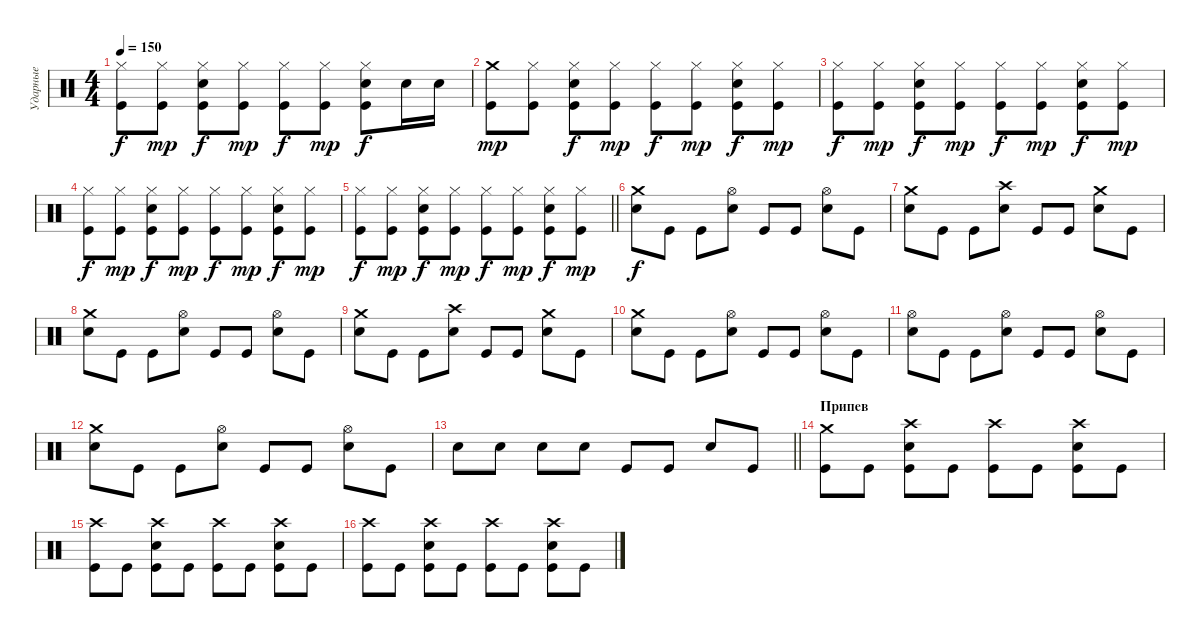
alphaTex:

\track ("Ударные" "Ударные") {instrument percussion}
\staff {score}
\articulation defaults
\ts (4 4)
\tempo 150
\clef neutral
\ks c
("Hi-Hat (closed)" "Kick (hit)").8{dy f} ("Hi-Hat (closed)" "Kick (hit)").8{dy mp} ("Hi-Hat (closed)" "Electric Snare (hit)" "Kick (hit)").8{dy f} ("Hi-Hat (closed)" "Kick (hit)").8{dy mp} ("Hi-Hat (closed)" "Kick (hit)").8{dy f} ("Hi-Hat (closed)" "Kick (hit)").8{dy mp} ("Hi-Hat (closed)" "Electric Snare (hit)" "Kick (hit)").8{dy f} "Electric Snare (hit)".16 "Electric Snare (hit)".16 |
("Crash medium (hit)" "Kick (hit)").8{dy mp} ("Hi-Hat (closed)" "Kick (hit)").8 ("Hi-Hat (closed)" "Electric Snare (hit)" "Kick (hit)").8{dy f} ("Hi-Hat (closed)" "Kick (hit)").8{dy mp} ("Hi-Hat (closed)" "Kick (hit)").8{dy f} ("Hi-Hat (closed)" "Kick (hit)").8{dy mp} ("Hi-Hat (closed)" "Electric Snare (hit)" "Kick (hit)").8{dy f} ("Hi-Hat (closed)" "Kick (hit)").8{dy mp} |
("Hi-Hat (closed)" "Kick (hit)").8{dy f} ("Hi-Hat (closed)" "Kick (hit)").8{dy mp} ("Hi-Hat (closed)" "Electric Snare (hit)" "Kick (hit)").8{dy f} ("Hi-Hat (closed)" "Kick (hit)").8{dy mp} ("Hi-Hat (closed)" "Kick (hit)").8{dy f} ("Hi-Hat (closed)" "Kick (hit)").8{dy mp} ("Hi-Hat (closed)" "Electric Snare (hit)" "Kick (hit)").8{dy f} ("Hi-Hat (closed)" "Kick (hit)").8{dy mp} |
("Hi-Hat (closed)" "Kick (hit)").8{dy f} ("Hi-Hat (closed)" "Kick (hit)").8{dy mp} ("Hi-Hat (closed)" "Electric Snare (hit)" "Kick (hit)").8{dy f} ("Hi-Hat (closed)" "Kick (hit)").8{dy mp} ("Hi-Hat (closed)" "Kick (hit)").8{dy f} ("Hi-Hat (closed)" "Kick (hit)").8{dy mp} ("Hi-Hat (closed)" "Electric Snare (hit)" "Kick (hit)").8{dy f} ("Hi-Hat (closed)" "Kick (hit)").8{dy mp} |
\barLineRight lightlight
("Hi-Hat (closed)" "Kick (hit)").8{dy f} ("Hi-Hat (closed)" "Kick (hit)").8{dy mp} ("Hi-Hat (closed)" "Electric Snare (hit)" "Kick (hit)").8{dy f} ("Hi-Hat (closed)" "Kick (hit)").8{dy mp} ("Hi-Hat (closed)" "Kick (hit)").8{dy f} ("Hi-Hat (closed)" "Kick (hit)").8{dy mp} ("Hi-Hat (closed)" "Electric Snare (hit)" "Kick (hit)").8{dy f} ("Hi-Hat (closed)" "Kick (hit)").8{dy mp} |
\section ("" " ")
("Crash medium (hit)" "Electric Snare (hit)").8{dy f} "Kick (hit)".8 "Kick (hit)".8 ("Hi-Hat (open)" "Electric Snare (hit)").8 "Kick (hit)".8 "Kick (hit)".8 ("Hi-Hat (open)" "Electric Snare (hit)").8 "Kick (hit)".8 |
("Crash medium (hit)" "Electric Snare (hit)").8 "Kick (hit)".8 "Kick (hit)".8 ("Crash high (hit)" "Electric Snare (hit)").8 "Kick (hit)".8 "Kick (hit)".8 ("Crash medium (hit)" "Electric Snare (hit)").8 "Kick (hit)".8 |
("Crash medium (hit)" "Electric Snare (hit)").8 "Kick (hit)".8 "Kick (hit)".8 ("Hi-Hat (open)" "Electric Snare (hit)").8 "Kick (hit)".8 "Kick (hit)".8 ("Hi-Hat (open)" "Electric Snare (hit)").8 "Kick (hit)".8 |
("Crash medium (hit)" "Electric Snare (hit)").8 "Kick (hit)".8 "Kick (hit)".8 ("Crash high (hit)" "Electric Snare (hit)").8 "Kick (hit)".8 "Kick (hit)".8 ("Crash medium (hit)" "Electric Snare (hit)").8 "Kick (hit)".8 |
("Crash medium (hit)" "Electric Snare (hit)").8 "Kick (hit)".8 "Kick (hit)".8 ("Hi-Hat (open)" "Electric Snare (hit)").8 "Kick (hit)".8 "Kick (hit)".8 ("Hi-Hat (open)" "Electric Snare (hit)").8 "Kick (hit)".8 |
("Hi-Hat (open)" "Electric Snare (hit)").8 "Kick (hit)".8 "Kick (hit)".8 ("Hi-Hat (open)" "Electric Snare (hit)").8 "Kick (hit)".8 "Kick (hit)".8 ("Hi-Hat (open)" "Electric Snare (hit)").8 "Kick (hit)".8 |
("Crash medium (hit)" "Electric Snare (hit)").8 "Kick (hit)".8 "Kick (hit)".8 ("Hi-Hat (open)" "Electric Snare (hit)").8 "Kick (hit)".8 "Kick (hit)".8 ("Hi-Hat (open)" "Electric Snare (hit)").8 "Kick (hit)".8 |
\barLineRight lightlight "Electric Snare (hit)".8 "Electric Snare (hit)".8 "Electric Snare (hit)".8 "Electric Snare (hit)".8 "Kick (hit)".8 "Kick (hit)".8 "Electric Snare (hit)".8 "Kick (hit)".8
|
\section ("" "Припев")
("Crash medium (hit)" "Kick (hit)").8 "Kick (hit)".8 ("Crash high (hit)" "Electric Snare (hit)" "Kick (hit)").8 "Kick (hit)".8 ("Crash high (hit)" "Kick (hit)").8 "Kick (hit)".8 ("Crash high (hit)" "Electric Snare (hit)" "Kick (hit)").8 "Kick (hit)".8 |
("Crash high (hit)" "Kick (hit)").8 "Kick (hit)".8 ("Crash high (hit)" "Electric Snare (hit)" "Kick (hit)").8 "Kick (hit)".8 ("Crash high (hit)" "Kick (hit)").8 "Kick (hit)".8 ("Crash high (hit)" "Electric Snare (hit)" "Kick (hit)").8 "Kick (hit)".8 |
("Crash high (hit)" "Kick (hit)").8 "Kick (hit)".8 ("Crash high (hit)" "Electric Snare (hit)" "Kick (hit)").8 "Kick (hit)".8 ("Crash high (hit)" "Kick (hit)").8 "Kick (hit)".8 ("Crash high (hit)" "Electric Snare (hit)" "Kick (hit)").8 "Kick (hit)".8
